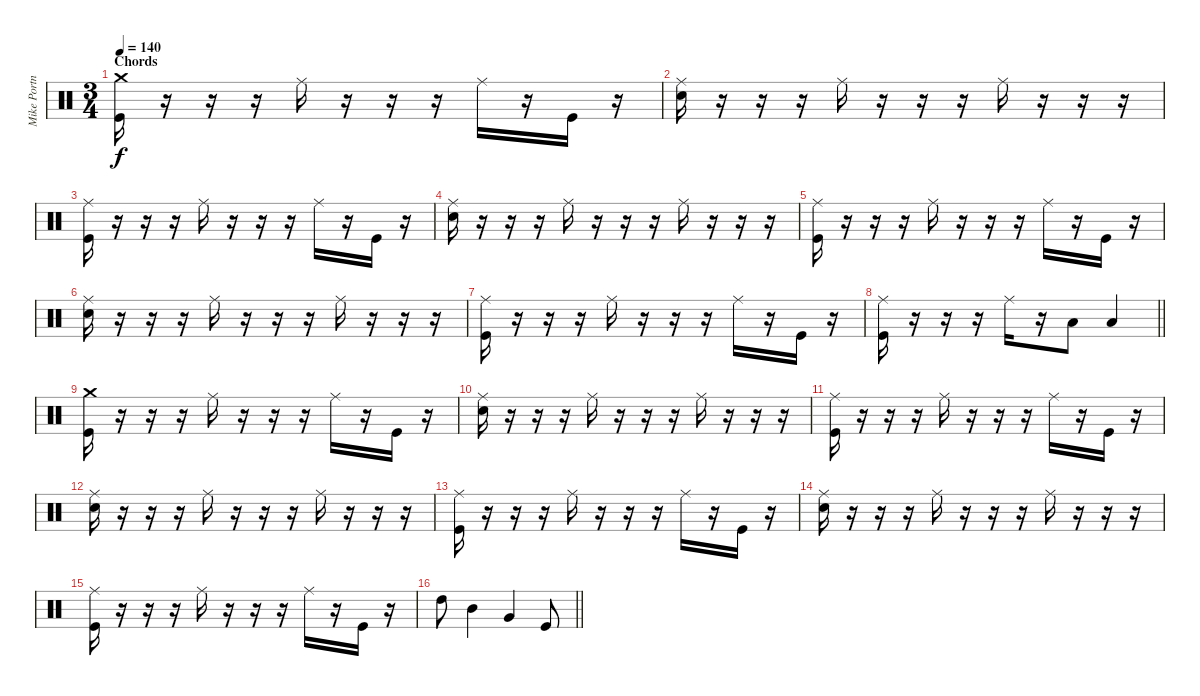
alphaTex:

\track ("Mike Portnoy" "Mike Portn") {instrument percussion}
\staff {score}
\articulation defaults
\ts (3 4)
\section ("" "Chords")
\tempo 140
\clef neutral
\ks c
("Kick (hit)" "Crash medium (hit)").16{dy f} r.16 r.16 r.16 "Ride (middle)".16 r.16 r.16 r.16 "Ride (middle)".16 r.16 "Kick (hit)".16 r.16 |
("Electric Snare (hit)" "Ride (middle)").16 r.16 r.16 r.16 "Ride (middle)".16 r.16 r.16 r.16 "Ride (middle)".16 r.16 r.16 r.16 |
("Kick (hit)" "Ride (middle)").16 r.16 r.16 r.16 "Ride (middle)".16 r.16 r.16 r.16 "Ride (middle)".16 r.16 "Kick (hit)".16 r.16 |
("Electric Snare (hit)" "Ride (middle)").16 r.16 r.16 r.16 "Ride (middle)".16 r.16 r.16 r.16 "Ride (middle)".16 r.16 r.16 r.16 |
("Kick (hit)" "Ride (middle)").16 r.16 r.16 r.16 "Ride (middle)".16 r.16 r.16 r.16 "Ride (middle)".16 r.16 "Kick (hit)".16 r.16 |
("Electric Snare (hit)" "Ride (middle)").16 r.16 r.16 r.16 "Ride (middle)".16 r.16 r.16 r.16 "Ride (middle)".16 r.16 r.16 r.16 |
("Kick (hit)" "Ride (middle)").16 r.16 r.16 r.16 "Ride (middle)".16 r.16 r.16 r.16 "Ride (middle)".16 r.16 "Kick (hit)".16 r.16 |
\barLineRight lightlight
("Kick (hit)" "Ride (middle)").16 r.16 r.16 r.16 "Ride (middle)".16 r.16 "Low Floor Tom (hit)".8 "Low Floor Tom (hit)".4 |
("Kick (hit)" "Crash medium (hit)").16 r.16 r.16 r.16 "Ride (middle)".16 r.16 r.16 r.16 "Ride (middle)".16 r.16 "Kick (hit)".16 r.16 |
("Electric Snare (hit)" "Ride (middle)").16 r.16 r.16 r.16 "Ride (middle)".16 r.16 r.16 r.16 "Ride (middle)".16 r.16 r.16 r.16 |
("Kick (hit)" "Ride (middle)").16 r.16 r.16 r.16 "Ride (middle)".16 r.16 r.16 r.16 "Ride (middle)".16 r.16 "Kick (hit)".16 r.16 |
("Electric Snare (hit)" "Ride (middle)").16 r.16 r.16 r.16 "Ride (middle)".16 r.16 r.16 r.16 "Ride (middle)".16 r.16 r.16 r.16 |
("Kick (hit)" "Ride (middle)").16 r.16 r.16 r.16 "Ride (middle)".16 r.16 r.16 r.16 "Ride (middle)".16 r.16 "Kick (hit)".16 r.16 |
("Electric Snare (hit)" "Ride (middle)").16 r.16 r.16 r.16 "Ride (middle)".16 r.16 r.16 r.16 "Ride (middle)".16 r.16 r.16 r.16 |
("Kick (hit)" "Ride (middle)").16 r.16 r.16 r.16 "Ride (middle)".16 r.16 r.16 r.16 "Ride (middle)".16 r.16 "Kick (hit)".16 r.16 |
\barLineRight lightlight "High Tom (hit)".8 "Mid Tom (hit)".4 "Very Low Tom (hit)".4 "Kick (hit)".8
